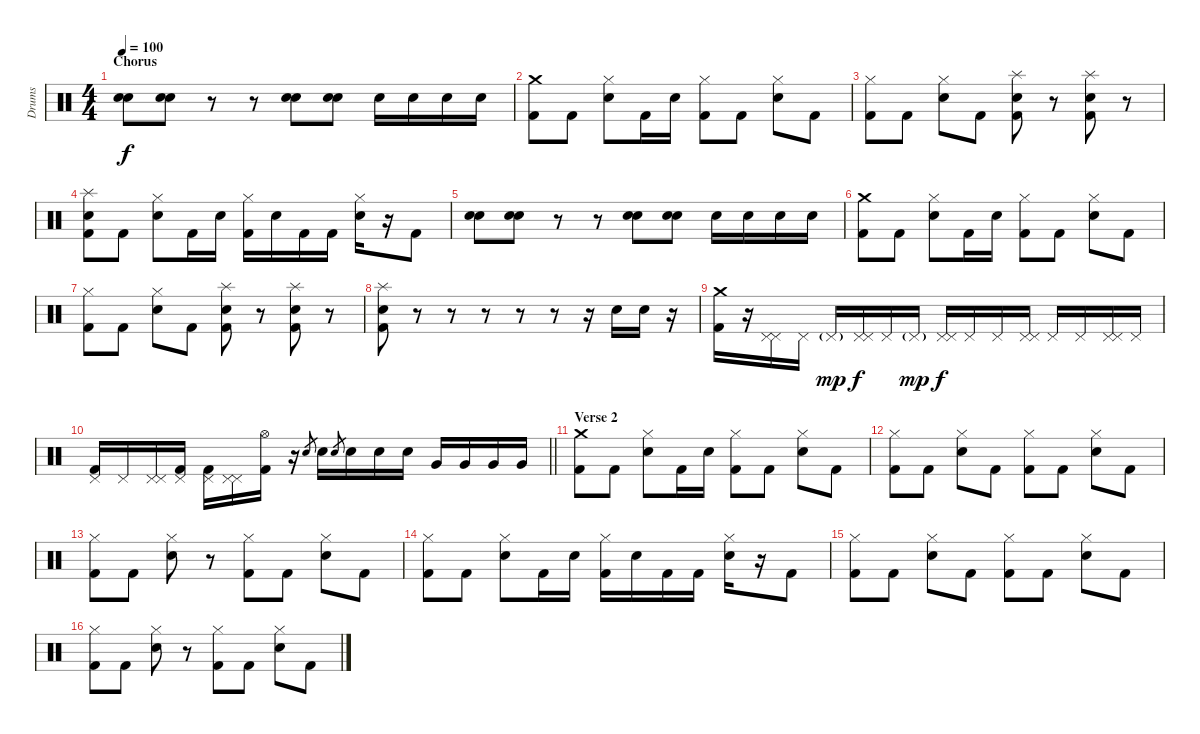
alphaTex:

\track ("Drums" "Drums") {instrument percussion}
\staff {score}
\articulation defaults
\ts (4 4)
\section ("" "Chorus")
\tempo 100
\clef neutral
\ks c
("Snare (hit) 2" "Snare (hit) 2").8{dy f} ("Snare (hit) 2" "Snare (hit) 2").8 r.8 r.8 ("Snare (hit) 2" "Snare (hit) 2").8 ("Snare (hit) 2" "Snare (hit) 2").8 "Snare (hit) 2".16 "Snare (hit) 2".16 "Snare (hit) 2".16 "Snare (hit) 2".16 |
("Crash medium (hit)" "Kick (hit) 2").8 "Kick (hit) 2".8 ("Hi-Hat (closed)" "Snare (hit) 2").8 "Kick (hit) 2".16 "Snare (hit) 2".16 ("Hi-Hat (closed)" "Kick (hit) 2").8 "Kick (hit) 2".8 ("Hi-Hat (closed)" "Snare (hit) 2").8 "Kick (hit) 2".8 |
("Hi-Hat (closed)" "Kick (hit) 2").8 "Kick (hit) 2".8 ("Hi-Hat (closed)" "Snare (hit) 2").8 "Kick (hit) 2".8 ("Splash (hit)" "Snare (hit) 2" "Kick (hit) 2").8 r.8 ("Splash (hit)" "Snare (hit) 2" "Kick (hit) 2").8 r.8 |
("Splash (hit)" "Snare (hit) 2" "Kick (hit) 2").8 "Kick (hit) 2".8 ("Hi-Hat (closed)" "Snare (hit) 2").8 "Kick (hit) 2".16 "Snare (hit) 2".16 ("Hi-Hat (closed)" "Kick (hit) 2").16 "Snare (hit) 2".16 "Kick (hit) 2".16 "Kick (hit) 2".16 ("Hi-Hat (closed)" "Snare (hit) 2").16 r.16 "Kick (hit) 2".8 |
("Snare (hit) 2" "Snare (hit) 2").8 ("Snare (hit) 2" "Snare (hit) 2").8 r.8 r.8 ("Snare (hit) 2" "Snare (hit) 2").8 ("Snare (hit) 2" "Snare (hit) 2").8 "Snare (hit) 2".16 "Snare (hit) 2".16 "Snare (hit) 2".16 "Snare (hit) 2".16 |
("Crash medium (hit)" "Kick (hit) 2").8 "Kick (hit) 2".8 ("Hi-Hat (closed)" "Snare (hit) 2").8 "Kick (hit) 2".16 "Snare (hit) 2".16 ("Hi-Hat (closed)" "Kick (hit) 2").8 "Kick (hit) 2".8 ("Hi-Hat (closed)" "Snare (hit) 2").8 "Kick (hit) 2".8 |
("Hi-Hat (closed)" "Kick (hit) 2").8 "Kick (hit) 2".8 ("Hi-Hat (closed)" "Snare (hit) 2").8 "Kick (hit) 2".8 ("Splash (hit)" "Snare (hit) 2" "Kick (hit) 2").8 r.8 ("Splash (hit)" "Snare (hit) 2" "Kick (hit) 2").8 r.8 |
("Splash (hit)" "Snare (hit) 2" "Kick (hit) 2").8 r.8 r.8 r.8 r.8 r.8 r.16 "Snare (hit) 2".16 "Snare (hit) 2".16 r.16 |
("Crash medium (hit)" "Kick (hit) 2").16 r.16 ("Pedal Hi-Hat (hit)" "Pedal Hi-Hat (hit)").16 "Pedal Hi-Hat (hit)".16 "Pedal Hi-Hat (hit)"{g}.16{dy mp} ("Pedal Hi-Hat (hit)" "Pedal Hi-Hat (hit)").16{dy f} "Pedal Hi-Hat (hit)".16 "Pedal Hi-Hat (hit)"{g}.16{dy mp} ("Pedal Hi-Hat (hit)" "Pedal Hi-Hat (hit)").16{dy f} "Pedal Hi-Hat (hit)".16 "Pedal Hi-Hat (hit)".16 ("Pedal Hi-Hat (hit)" "Pedal Hi-Hat (hit)").16 "Pedal Hi-Hat (hit)".16 "Pedal Hi-Hat (hit)".16 ("Pedal Hi-Hat (hit)" "Pedal Hi-Hat (hit)").16 "Pedal Hi-Hat (hit)".16 |
\barLineRight lightlight
("Pedal Hi-Hat (hit)" "Kick (hit) 2").16 "Pedal Hi-Hat (hit)".16 ("Pedal Hi-Hat (hit)" "Pedal Hi-Hat (hit)").16 ("Pedal Hi-Hat (hit)" "Kick (hit) 2").16 ("Pedal Hi-Hat (hit)" "Kick (hit) 2").16 ("Pedal Hi-Hat (hit)" "Pedal Hi-Hat (hit)").16 ("Hi-Hat (open)" "Kick (hit) 2").16 r.16 "Snare (hit) 2".8{gr} "Snare (hit) 2".16 "Snare (hit) 2".8{gr} "Snare (hit) 2".16 "Snare (hit) 2".16 "Snare (hit) 2".16 "Very Low Tom (hit)".16 "Very Low Tom (hit)".16 "Very Low Tom (hit)".16 "Very Low Tom (hit)".16 |
\section ("" "Verse 2")
("Crash medium (hit)" "Kick (hit) 2").8 "Kick (hit) 2".8 ("Hi-Hat (closed)" "Snare (hit) 2").8 "Kick (hit) 2".16 "Snare (hit) 2".16 ("Hi-Hat (closed)" "Kick (hit) 2").8 "Kick (hit) 2".8 ("Hi-Hat (closed)" "Snare (hit) 2").8 "Kick (hit) 2".8 |
("Hi-Hat (closed)" "Kick (hit) 2").8 "Kick (hit) 2".8 ("Hi-Hat (closed)" "Snare (hit) 2").8 "Kick (hit) 2".8 ("Hi-Hat (closed)" "Kick (hit) 2").8 "Kick (hit) 2".8 ("Hi-Hat (closed)" "Snare (hit) 2").8 "Kick (hit) 2".8 |
("Hi-Hat (closed)" "Kick (hit) 2").8 "Kick (hit) 2".8 ("Hi-Hat (closed)" "Snare (hit) 2").8 r.8 ("Hi-Hat (closed)" "Kick (hit) 2").8 "Kick (hit) 2".8 ("Hi-Hat (closed)" "Snare (hit) 2").8 "Kick (hit) 2".8 |
("Hi-Hat (closed)" "Kick (hit) 2").8 "Kick (hit) 2".8 ("Hi-Hat (closed)" "Snare (hit) 2").8 "Kick (hit) 2".16 "Snare (hit) 2".16 ("Hi-Hat (closed)" "Kick (hit) 2").16 "Snare (hit) 2".16 "Kick (hit) 2".16 "Kick (hit) 2".16 ("Hi-Hat (closed)" "Snare (hit) 2").16 r.16 "Kick (hit) 2".8 |
("Hi-Hat (closed)" "Kick (hit) 2").8 "Kick (hit) 2".8 ("Hi-Hat (closed)" "Snare (hit) 2").8 "Kick (hit) 2".8 ("Hi-Hat (closed)" "Kick (hit) 2").8 "Kick (hit) 2".8 ("Hi-Hat (closed)" "Snare (hit) 2").8 "Kick (hit) 2".8 |
("Hi-Hat (closed)" "Kick (hit) 2").8 "Kick (hit) 2".8 ("Hi-Hat (closed)" "Snare (hit) 2").8 r.8 ("Hi-Hat (closed)" "Kick (hit) 2").8 "Kick (hit) 2".8 ("Hi-Hat (closed)" "Snare (hit) 2").8 "Kick (hit) 2".8
